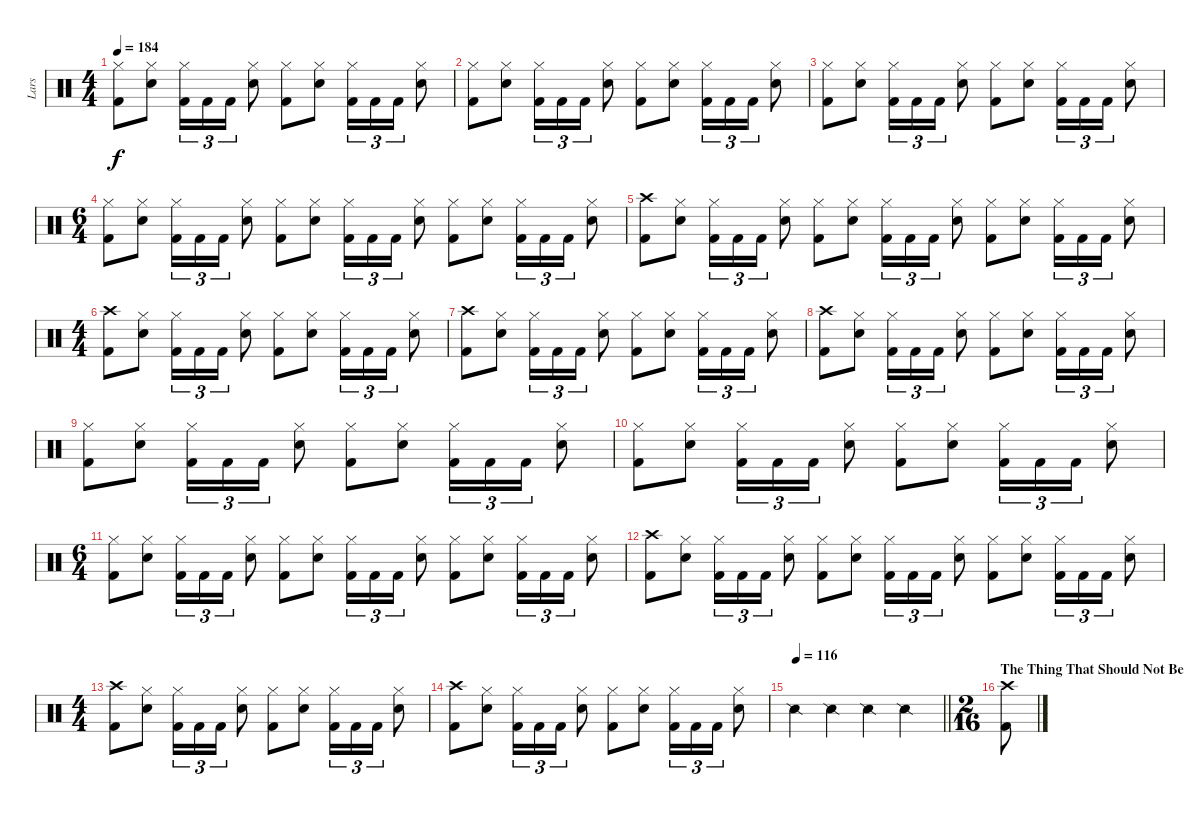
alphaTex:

\track ("Lars" "Lars") {instrument percussion}
\staff {score}
\articulation defaults
\ts (4 4)
\tempo 184
\clef neutral
\ks c
("Hi-Hat (closed)" "Kick (hit) 2").8{dy f} ("Hi-Hat (closed)" "Snare (hit) 2").8 ("Hi-Hat (closed)" "Kick (hit) 2").16{tu (3 2)} "Kick (hit) 2".16{tu (3 2)} "Kick (hit) 2".16{tu (3 2)} ("Hi-Hat (closed)" "Snare (hit) 2").8 ("Hi-Hat (closed)" "Kick (hit) 2").8 ("Hi-Hat (closed)" "Snare (hit) 2").8 ("Hi-Hat (closed)" "Kick (hit) 2").16{tu (3 2)} "Kick (hit) 2".16{tu (3 2)} "Kick (hit) 2".16{tu (3 2)} ("Hi-Hat (closed)" "Snare (hit) 2").8 |
("Hi-Hat (closed)" "Kick (hit) 2").8 ("Hi-Hat (closed)" "Snare (hit) 2").8 ("Hi-Hat (closed)" "Kick (hit) 2").16{tu (3 2)} "Kick (hit) 2".16{tu (3 2)} "Kick (hit) 2".16{tu (3 2)} ("Hi-Hat (closed)" "Snare (hit) 2").8 ("Hi-Hat (closed)" "Kick (hit) 2").8 ("Hi-Hat (closed)" "Snare (hit) 2").8 ("Hi-Hat (closed)" "Kick (hit) 2").16{tu (3 2)} "Kick (hit) 2".16{tu (3 2)} "Kick (hit) 2".16{tu (3 2)} ("Hi-Hat (closed)" "Snare (hit) 2").8 |
("Hi-Hat (closed)" "Kick (hit) 2").8 ("Hi-Hat (closed)" "Snare (hit) 2").8 ("Hi-Hat (closed)" "Kick (hit) 2").16{tu (3 2)} "Kick (hit) 2".16{tu (3 2)} "Kick (hit) 2".16{tu (3 2)} ("Hi-Hat (closed)" "Snare (hit) 2").8 ("Hi-Hat (closed)" "Kick (hit) 2").8 ("Hi-Hat (closed)" "Snare (hit) 2").8 ("Hi-Hat (closed)" "Kick (hit) 2").16{tu (3 2)} "Kick (hit) 2".16{tu (3 2)} "Kick (hit) 2".16{tu (3 2)} ("Hi-Hat (closed)" "Snare (hit) 2").8 |
\ts (6 4)
("Hi-Hat (closed)" "Kick (hit) 2").8 ("Hi-Hat (closed)" "Snare (hit) 2").8 ("Hi-Hat (closed)" "Kick (hit) 2").16{tu (3 2)} "Kick (hit) 2".16{tu (3 2)} "Kick (hit) 2".16{tu (3 2)} ("Hi-Hat (closed)" "Snare (hit) 2").8 ("Hi-Hat (closed)" "Kick (hit) 2").8 ("Hi-Hat (closed)" "Snare (hit) 2").8 ("Hi-Hat (closed)" "Kick (hit) 2").16{tu (3 2)} "Kick (hit) 2".16{tu (3 2)} "Kick (hit) 2".16{tu (3 2)} ("Hi-Hat (closed)" "Snare (hit) 2").8 ("Hi-Hat (closed)" "Kick (hit) 2").8 ("Hi-Hat (closed)" "Snare (hit) 2").8 ("Hi-Hat (closed)" "Kick (hit) 2").16{tu (3 2)} "Kick (hit) 2".16{tu (3 2)} "Kick (hit) 2".16{tu (3 2)} ("Hi-Hat (closed)" "Snare (hit) 2").8 |
("Crash high (hit)" "Kick (hit) 2").8 ("Hi-Hat (closed)" "Snare (hit) 2").8 ("Hi-Hat (closed)" "Kick (hit) 2").16{tu (3 2)} "Kick (hit) 2".16{tu (3 2)} "Kick (hit) 2".16{tu (3 2)} ("Hi-Hat (closed)" "Snare (hit) 2").8 ("Hi-Hat (closed)" "Kick (hit) 2").8 ("Hi-Hat (closed)" "Snare (hit) 2").8 ("Hi-Hat (closed)" "Kick (hit) 2").16{tu (3 2)} "Kick (hit) 2".16{tu (3 2)} "Kick (hit) 2".16{tu (3 2)} ("Hi-Hat (closed)" "Snare (hit) 2").8 ("Hi-Hat (closed)" "Kick (hit) 2").8 ("Hi-Hat (closed)" "Snare (hit) 2").8 ("Hi-Hat (closed)" "Kick (hit) 2").16{tu (3 2)} "Kick (hit) 2".16{tu (3 2)} "Kick (hit) 2".16{tu (3 2)} ("Hi-Hat (closed)" "Snare (hit) 2").8 |
\ts (4 4)
("Crash high (hit)" "Kick (hit) 2").8 ("Hi-Hat (closed)" "Snare (hit) 2").8 ("Hi-Hat (closed)" "Kick (hit) 2").16{tu (3 2)} "Kick (hit) 2".16{tu (3 2)} "Kick (hit) 2".16{tu (3 2)} ("Hi-Hat (closed)" "Snare (hit) 2").8 ("Hi-Hat (closed)" "Kick (hit) 2").8 ("Hi-Hat (closed)" "Snare (hit) 2").8 ("Hi-Hat (closed)" "Kick (hit) 2").16{tu (3 2)} "Kick (hit) 2".16{tu (3 2)} "Kick (hit) 2".16{tu (3 2)} ("Hi-Hat (closed)" "Snare (hit) 2").8 |
("Crash high (hit)" "Kick (hit) 2").8 ("Hi-Hat (closed)" "Snare (hit) 2").8 ("Hi-Hat (closed)" "Kick (hit) 2").16{tu (3 2)} "Kick (hit) 2".16{tu (3 2)} "Kick (hit) 2".16{tu (3 2)} ("Hi-Hat (closed)" "Snare (hit) 2").8 ("Hi-Hat (closed)" "Kick (hit) 2").8 ("Hi-Hat (closed)" "Snare (hit) 2").8 ("Hi-Hat (closed)" "Kick (hit) 2").16{tu (3 2)} "Kick (hit) 2".16{tu (3 2)} "Kick (hit) 2".16{tu (3 2)} ("Hi-Hat (closed)" "Snare (hit) 2").8 |
("Crash high (hit)" "Kick (hit) 2").8 ("Hi-Hat (closed)" "Snare (hit) 2").8 ("Hi-Hat (closed)" "Kick (hit) 2").16{tu (3 2)} "Kick (hit) 2".16{tu (3 2)} "Kick (hit) 2".16{tu (3 2)} ("Hi-Hat (closed)" "Snare (hit) 2").8 ("Hi-Hat (closed)" "Kick (hit) 2").8 ("Hi-Hat (closed)" "Snare (hit) 2").8 ("Hi-Hat (closed)" "Kick (hit) 2").16{tu (3 2)} "Kick (hit) 2".16{tu (3 2)} "Kick (hit) 2".16{tu (3 2)} ("Hi-Hat (closed)" "Snare (hit) 2").8 |
("Hi-Hat (closed)" "Kick (hit) 2").8 ("Hi-Hat (closed)" "Snare (hit) 2").8 ("Hi-Hat (closed)" "Kick (hit) 2").16{tu (3 2)} "Kick (hit) 2".16{tu (3 2)} "Kick (hit) 2".16{tu (3 2)} ("Hi-Hat (closed)" "Snare (hit) 2").8 ("Hi-Hat (closed)" "Kick (hit) 2").8 ("Hi-Hat (closed)" "Snare (hit) 2").8 ("Hi-Hat (closed)" "Kick (hit) 2").16{tu (3 2)} "Kick (hit) 2".16{tu (3 2)} "Kick (hit) 2".16{tu (3 2)} ("Hi-Hat (closed)" "Snare (hit) 2").8 |
("Hi-Hat (closed)" "Kick (hit) 2").8 ("Hi-Hat (closed)" "Snare (hit) 2").8 ("Hi-Hat (closed)" "Kick (hit) 2").16{tu (3 2)} "Kick (hit) 2".16{tu (3 2)} "Kick (hit) 2".16{tu (3 2)} ("Hi-Hat (closed)" "Snare (hit) 2").8 ("Hi-Hat (closed)" "Kick (hit) 2").8 ("Hi-Hat (closed)" "Snare (hit) 2").8 ("Hi-Hat (closed)" "Kick (hit) 2").16{tu (3 2)} "Kick (hit) 2".16{tu (3 2)} "Kick (hit) 2".16{tu (3 2)} ("Hi-Hat (closed)" "Snare (hit) 2").8 |
\ts (6 4)
("Hi-Hat (closed)" "Kick (hit) 2").8 ("Hi-Hat (closed)" "Snare (hit) 2").8 ("Hi-Hat (closed)" "Kick (hit) 2").16{tu (3 2)} "Kick (hit) 2".16{tu (3 2)} "Kick (hit) 2".16{tu (3 2)} ("Hi-Hat (closed)" "Snare (hit) 2").8 ("Hi-Hat (closed)" "Kick (hit) 2").8 ("Hi-Hat (closed)" "Snare (hit) 2").8 ("Hi-Hat (closed)" "Kick (hit) 2").16{tu (3 2)} "Kick (hit) 2".16{tu (3 2)} "Kick (hit) 2".16{tu (3 2)} ("Hi-Hat (closed)" "Snare (hit) 2").8 ("Hi-Hat (closed)" "Kick (hit) 2").8 ("Hi-Hat (closed)" "Snare (hit) 2").8 ("Hi-Hat (closed)" "Kick (hit) 2").16{tu (3 2)} "Kick (hit) 2".16{tu (3 2)} "Kick (hit) 2".16{tu (3 2)} ("Hi-Hat (closed)" "Snare (hit) 2").8 |
("Crash high (hit)" "Kick (hit) 2").8 ("Hi-Hat (closed)" "Snare (hit) 2").8 ("Hi-Hat (closed)" "Kick (hit) 2").16{tu (3 2)} "Kick (hit) 2".16{tu (3 2)} "Kick (hit) 2".16{tu (3 2)} ("Hi-Hat (closed)" "Snare (hit) 2").8 ("Hi-Hat (closed)" "Kick (hit) 2").8 ("Hi-Hat (closed)" "Snare (hit) 2").8 ("Hi-Hat (closed)" "Kick (hit) 2").16{tu (3 2)} "Kick (hit) 2".16{tu (3 2)} "Kick (hit) 2".16{tu (3 2)} ("Hi-Hat (closed)" "Snare (hit) 2").8 ("Hi-Hat (closed)" "Kick (hit) 2").8 ("Hi-Hat (closed)" "Snare (hit) 2").8 ("Hi-Hat (closed)" "Kick (hit) 2").16{tu (3 2)} "Kick (hit) 2".16{tu (3 2)} "Kick (hit) 2".16{tu (3 2)} ("Hi-Hat (closed)" "Snare (hit) 2").8 |
\ts (4 4)
("Crash high (hit)" "Kick (hit) 2").8 ("Hi-Hat (closed)" "Snare (hit) 2").8 ("Hi-Hat (closed)" "Kick (hit) 2").16{tu (3 2)} "Kick (hit) 2".16{tu (3 2)} "Kick (hit) 2".16{tu (3 2)} ("Hi-Hat (closed)" "Snare (hit) 2").8 ("Hi-Hat (closed)" "Kick (hit) 2").8 ("Hi-Hat (closed)" "Snare (hit) 2").8 ("Hi-Hat (closed)" "Kick (hit) 2").16{tu (3 2)} "Kick (hit) 2".16{tu (3 2)} "Kick (hit) 2".16{tu (3 2)} ("Hi-Hat (closed)" "Snare (hit) 2").8 |
("Crash high (hit)" "Kick (hit) 2").8 ("Hi-Hat (closed)" "Snare (hit) 2").8 ("Hi-Hat (closed)" "Kick (hit) 2").16{tu (3 2)} "Kick (hit) 2".16{tu (3 2)} "Kick (hit) 2".16{tu (3 2)} ("Hi-Hat (closed)" "Snare (hit) 2").8 ("Hi-Hat (closed)" "Kick (hit) 2").8 ("Hi-Hat (closed)" "Snare (hit) 2").8 ("Hi-Hat (closed)" "Kick (hit) 2").16{tu (3 2)} "Kick (hit) 2".16{tu (3 2)} "Kick (hit) 2".16{tu (3 2)} ("Hi-Hat (closed)" "Snare (hit) 2").8 |
\tempo 116
\barLineRight lightlight "Snare (side stick) 2".4 "Snare (side stick) 2".4 "Snare (side stick) 2".4 "Snare (side stick) 2".4
|
\ts (2 16)
\section ("" "The Thing That Should Not Be")
("Crash high (hit)" "Kick (hit) 2").8
